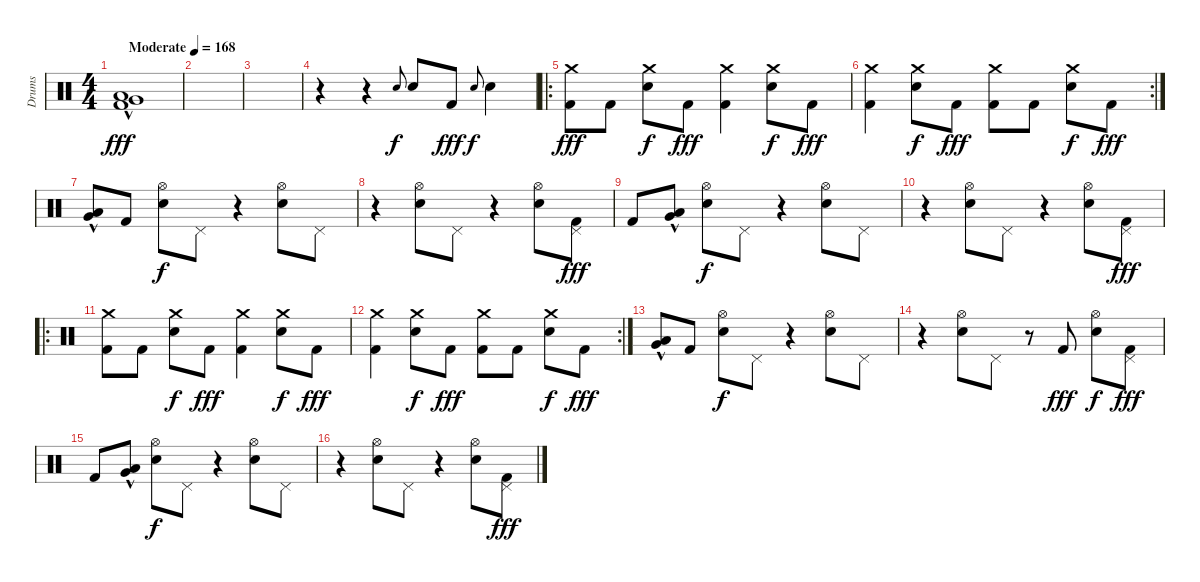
\track ("Drums" "Drums") {instrument percussion}
\staff {score}
\articulation defaults
\ts (4 4)
\tempo (168 "Moderate")
\clef neutral
\ks c
("Low Tom (hit)"{hac} "Very Low Tom (hit)"{hac} "Kick (hit) 2"{hac}).1{dy fff} |
|
|
r.4 r.4 "Electric Snare (hit)".8{gr onbeat dy f} "Electric Snare (hit)".8 "Kick (hit) 2".8{dy fff} "Electric Snare (hit)".8{gr onbeat dy f} "Electric Snare (hit)".4 |
\ro
("Crash medium (hit)" "Kick (hit) 2").8{dy fff} "Kick (hit) 2".8 ("Crash medium (hit)" "Electric Snare (hit)").8{dy f} "Kick (hit) 2".8{dy fff} ("Crash medium (hit)" "Kick (hit) 2").4 ("Crash medium (hit)" "Electric Snare (hit)").8{dy f} "Kick (hit) 2".8{dy fff} |
\rc 2
("Crash medium (hit)" "Kick (hit) 2").4 ("Crash medium (hit)" "Electric Snare (hit)").8{dy f} "Kick (hit) 2".8{dy fff} ("Crash medium (hit)" "Kick (hit) 2").8 "Kick (hit) 2".8 ("Crash medium (hit)" "Electric Snare (hit)").8{dy f} "Kick (hit) 2".8{dy fff} |
("Low Tom (hit)"{hac} "Very Low Tom (hit)"{hac}).8 "Kick (hit) 2".8 ("Hi-Hat (open)" "Electric Snare (hit)").8{dy f} "Pedal Hi-Hat (hit)".8 r.4 ("Hi-Hat (open)" "Electric Snare (hit)").8 "Pedal Hi-Hat (hit)".8 |
r.4 ("Hi-Hat (open)" "Electric Snare (hit)").8 "Pedal Hi-Hat (hit)".8 r.4 ("Hi-Hat (open)" "Electric Snare (hit)").8 ("Pedal Hi-Hat (hit)" "Kick (hit) 2").8{dy fff} |
"Kick (hit) 2".8 ("Low Tom (hit)"{hac} "Very Low Tom (hit)"{hac}).8 ("Hi-Hat (open)" "Electric Snare (hit)").8{dy f} "Pedal Hi-Hat (hit)".8 r.4 ("Hi-Hat (open)" "Electric Snare (hit)").8 "Pedal Hi-Hat (hit)".8 |
r.4 ("Hi-Hat (open)" "Electric Snare (hit)").8 "Pedal Hi-Hat (hit)".8 r.4 ("Hi-Hat (open)" "Electric Snare (hit)").8 ("Pedal Hi-Hat (hit)" "Kick (hit) 2").8{dy fff} |
\ro
("Crash medium (hit)" "Kick (hit) 2").8 "Kick (hit) 2".8 ("Crash medium (hit)" "Electric Snare (hit)").8{dy f} "Kick (hit) 2".8{dy fff} ("Crash medium (hit)" "Kick (hit) 2").4 ("Crash medium (hit)" "Electric Snare (hit)").8{dy f} "Kick (hit) 2".8{dy fff} |
\rc 2
("Crash medium (hit)" "Kick (hit) 2").4 ("Crash medium (hit)" "Electric Snare (hit)").8{dy f} "Kick (hit) 2".8{dy fff} ("Crash medium (hit)" "Kick (hit) 2").8 "Kick (hit) 2".8 ("Crash medium (hit)" "Electric Snare (hit)").8{dy f} "Kick (hit) 2".8{dy fff} |
("Low Tom (hit)"{hac} "Very Low Tom (hit)"{hac}).8 "Kick (hit) 2".8 ("Hi-Hat (open)" "Electric Snare (hit)").8{dy f} "Pedal Hi-Hat (hit)".8 r.4 ("Hi-Hat (open)" "Electric Snare (hit)").8 "Pedal Hi-Hat (hit)".8 |
r.4 ("Hi-Hat (open)" "Electric Snare (hit)").8 "Pedal Hi-Hat (hit)".8 r.8 "Kick (hit) 2".8{dy fff} ("Hi-Hat (open)" "Electric Snare (hit)").8{dy f} ("Pedal Hi-Hat (hit)" "Kick (hit) 2").8{dy fff} |
"Kick (hit) 2".8 ("Low Tom (hit)"{hac} "Very Low Tom (hit)"{hac}).8 ("Hi-Hat (open)" "Electric Snare (hit)").8{dy f} "Pedal Hi-Hat (hit)".8 r.4 ("Hi-Hat (open)" "Electric Snare (hit)").8 "Pedal Hi-Hat (hit)".8 |
r.4 ("Hi-Hat (open)" "Electric Snare (hit)").8 "Pedal Hi-Hat (hit)".8 r.4 ("Hi-Hat (open)" "Electric Snare (hit)").8 ("Pedal Hi-Hat (hit)" "Kick (hit) 2").8{dy fff}
